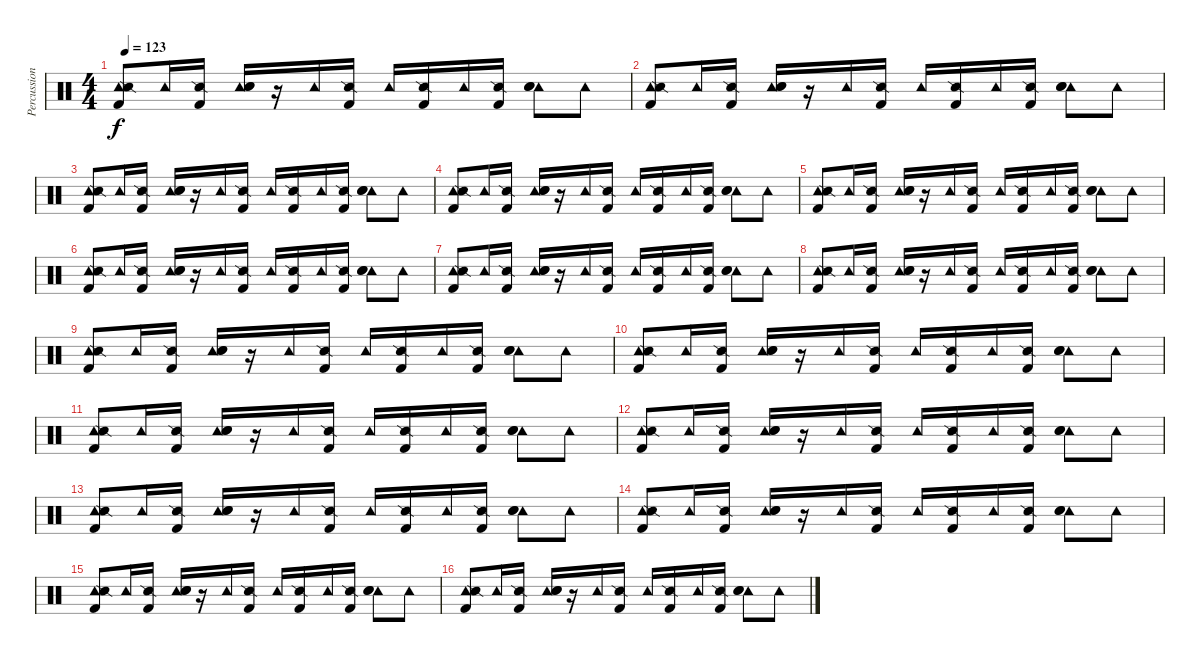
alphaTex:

\track ("Percussion" "Percussion") {instrument percussion}
\staff {score}
\articulation defaults
\ts (4 4)
\tempo 123
\clef neutral
\ks c
("Tambourine (hit)" "Snare (side stick) 2" "Kick (hit) 2").8{dy f} "Tambourine (hit)".16 ("Snare (side stick) 2" "Kick (hit) 2").16 ("Tambourine (hit)" "Electric Snare (hit)" "Snare (hit) 2").16 r.16 "Tambourine (hit)".16 ("Snare (side stick) 2" "Kick (hit) 2").16 "Tambourine (hit)".16 ("Snare (side stick) 2" "Kick (hit) 2").16 "Tambourine (hit)".16 ("Snare (side stick) 2" "Kick (hit) 2").16 ("Tambourine (hit)" "Electric Snare (hit)" "Snare (hit) 2").8 "Tambourine (hit)".8 |
("Tambourine (hit)" "Snare (side stick) 2" "Kick (hit) 2").8 "Tambourine (hit)".16 ("Snare (side stick) 2" "Kick (hit) 2").16 ("Tambourine (hit)" "Electric Snare (hit)" "Snare (hit) 2").16 r.16 "Tambourine (hit)".16 ("Snare (side stick) 2" "Kick (hit) 2").16 "Tambourine (hit)".16 ("Snare (side stick) 2" "Kick (hit) 2").16 "Tambourine (hit)".16 ("Snare (side stick) 2" "Kick (hit) 2").16 ("Tambourine (hit)" "Electric Snare (hit)" "Snare (hit) 2").8 "Tambourine (hit)".8 |
("Tambourine (hit)" "Snare (side stick) 2" "Kick (hit) 2").8 "Tambourine (hit)".16 ("Snare (side stick) 2" "Kick (hit) 2").16 ("Tambourine (hit)" "Electric Snare (hit)" "Snare (hit) 2").16 r.16 "Tambourine (hit)".16 ("Snare (side stick) 2" "Kick (hit) 2").16 "Tambourine (hit)".16 ("Snare (side stick) 2" "Kick (hit) 2").16 "Tambourine (hit)".16 ("Snare (side stick) 2" "Kick (hit) 2").16 ("Tambourine (hit)" "Electric Snare (hit)" "Snare (hit) 2").8 "Tambourine (hit)".8 |
("Tambourine (hit)" "Snare (side stick) 2" "Kick (hit) 2").8 "Tambourine (hit)".16 ("Snare (side stick) 2" "Kick (hit) 2").16 ("Tambourine (hit)" "Electric Snare (hit)" "Snare (hit) 2").16 r.16 "Tambourine (hit)".16 ("Snare (side stick) 2" "Kick (hit) 2").16 "Tambourine (hit)".16 ("Snare (side stick) 2" "Kick (hit) 2").16 "Tambourine (hit)".16 ("Snare (side stick) 2" "Kick (hit) 2").16 ("Tambourine (hit)" "Electric Snare (hit)" "Snare (hit) 2").8 "Tambourine (hit)".8 |
("Tambourine (hit)" "Snare (side stick) 2" "Kick (hit) 2").8 "Tambourine (hit)".16 ("Snare (side stick) 2" "Kick (hit) 2").16 ("Tambourine (hit)" "Electric Snare (hit)" "Snare (hit) 2").16 r.16 "Tambourine (hit)".16 ("Snare (side stick) 2" "Kick (hit) 2").16 "Tambourine (hit)".16 ("Snare (side stick) 2" "Kick (hit) 2").16 "Tambourine (hit)".16 ("Snare (side stick) 2" "Kick (hit) 2").16 ("Tambourine (hit)" "Electric Snare (hit)" "Snare (hit) 2").8 "Tambourine (hit)".8 |
("Tambourine (hit)" "Snare (side stick) 2" "Kick (hit) 2").8 "Tambourine (hit)".16 ("Snare (side stick) 2" "Kick (hit) 2").16 ("Tambourine (hit)" "Electric Snare (hit)" "Snare (hit) 2").16 r.16 "Tambourine (hit)".16 ("Snare (side stick) 2" "Kick (hit) 2").16 "Tambourine (hit)".16 ("Snare (side stick) 2" "Kick (hit) 2").16 "Tambourine (hit)".16 ("Snare (side stick) 2" "Kick (hit) 2").16 ("Tambourine (hit)" "Electric Snare (hit)" "Snare (hit) 2").8 "Tambourine (hit)".8 |
("Tambourine (hit)" "Snare (side stick) 2" "Kick (hit) 2").8 "Tambourine (hit)".16 ("Snare (side stick) 2" "Kick (hit) 2").16 ("Tambourine (hit)" "Electric Snare (hit)" "Snare (hit) 2").16 r.16 "Tambourine (hit)".16 ("Snare (side stick) 2" "Kick (hit) 2").16 "Tambourine (hit)".16 ("Snare (side stick) 2" "Kick (hit) 2").16 "Tambourine (hit)".16 ("Snare (side stick) 2" "Kick (hit) 2").16 ("Tambourine (hit)" "Electric Snare (hit)" "Snare (hit) 2").8 "Tambourine (hit)".8 |
("Tambourine (hit)" "Snare (side stick) 2" "Kick (hit) 2").8 "Tambourine (hit)".16 ("Snare (side stick) 2" "Kick (hit) 2").16 ("Tambourine (hit)" "Electric Snare (hit)" "Snare (hit) 2").16 r.16 "Tambourine (hit)".16 ("Snare (side stick) 2" "Kick (hit) 2").16 "Tambourine (hit)".16 ("Snare (side stick) 2" "Kick (hit) 2").16 "Tambourine (hit)".16 ("Snare (side stick) 2" "Kick (hit) 2").16 ("Tambourine (hit)" "Electric Snare (hit)" "Snare (hit) 2").8 "Tambourine (hit)".8 |
("Tambourine (hit)" "Snare (side stick) 2" "Kick (hit) 2").8 "Tambourine (hit)".16 ("Snare (side stick) 2" "Kick (hit) 2").16 ("Tambourine (hit)" "Electric Snare (hit)" "Snare (hit) 2").16 r.16 "Tambourine (hit)".16 ("Snare (side stick) 2" "Kick (hit) 2").16 "Tambourine (hit)".16 ("Snare (side stick) 2" "Kick (hit) 2").16 "Tambourine (hit)".16 ("Snare (side stick) 2" "Kick (hit) 2").16 ("Tambourine (hit)" "Electric Snare (hit)" "Snare (hit) 2").8 "Tambourine (hit)".8 |
("Tambourine (hit)" "Snare (side stick) 2" "Kick (hit) 2").8 "Tambourine (hit)".16 ("Snare (side stick) 2" "Kick (hit) 2").16 ("Tambourine (hit)" "Electric Snare (hit)" "Snare (hit) 2").16 r.16 "Tambourine (hit)".16 ("Snare (side stick) 2" "Kick (hit) 2").16 "Tambourine (hit)".16 ("Snare (side stick) 2" "Kick (hit) 2").16 "Tambourine (hit)".16 ("Snare (side stick) 2" "Kick (hit) 2").16 ("Tambourine (hit)" "Electric Snare (hit)" "Snare (hit) 2").8 "Tambourine (hit)".8 |
("Tambourine (hit)" "Snare (side stick) 2" "Kick (hit) 2").8 "Tambourine (hit)".16 ("Snare (side stick) 2" "Kick (hit) 2").16 ("Tambourine (hit)" "Electric Snare (hit)" "Snare (hit) 2").16 r.16 "Tambourine (hit)".16 ("Snare (side stick) 2" "Kick (hit) 2").16 "Tambourine (hit)".16 ("Snare (side stick) 2" "Kick (hit) 2").16 "Tambourine (hit)".16 ("Snare (side stick) 2" "Kick (hit) 2").16 ("Tambourine (hit)" "Electric Snare (hit)" "Snare (hit) 2").8 "Tambourine (hit)".8 |
("Tambourine (hit)" "Snare (side stick) 2" "Kick (hit) 2").8 "Tambourine (hit)".16 ("Snare (side stick) 2" "Kick (hit) 2").16 ("Tambourine (hit)" "Electric Snare (hit)" "Snare (hit) 2").16 r.16 "Tambourine (hit)".16 ("Snare (side stick) 2" "Kick (hit) 2").16 "Tambourine (hit)".16 ("Snare (side stick) 2" "Kick (hit) 2").16 "Tambourine (hit)".16 ("Snare (side stick) 2" "Kick (hit) 2").16 ("Tambourine (hit)" "Electric Snare (hit)" "Snare (hit) 2").8 "Tambourine (hit)".8 |
("Tambourine (hit)" "Snare (side stick) 2" "Kick (hit) 2").8 "Tambourine (hit)".16 ("Snare (side stick) 2" "Kick (hit) 2").16 ("Tambourine (hit)" "Electric Snare (hit)" "Snare (hit) 2").16 r.16 "Tambourine (hit)".16 ("Snare (side stick) 2" "Kick (hit) 2").16 "Tambourine (hit)".16 ("Snare (side stick) 2" "Kick (hit) 2").16 "Tambourine (hit)".16 ("Snare (side stick) 2" "Kick (hit) 2").16 ("Tambourine (hit)" "Electric Snare (hit)" "Snare (hit) 2").8 "Tambourine (hit)".8 |
("Tambourine (hit)" "Snare (side stick) 2" "Kick (hit) 2").8 "Tambourine (hit)".16 ("Snare (side stick) 2" "Kick (hit) 2").16 ("Tambourine (hit)" "Electric Snare (hit)" "Snare (hit) 2").16 r.16 "Tambourine (hit)".16 ("Snare (side stick) 2" "Kick (hit) 2").16 "Tambourine (hit)".16 ("Snare (side stick) 2" "Kick (hit) 2").16 "Tambourine (hit)".16 ("Snare (side stick) 2" "Kick (hit) 2").16 ("Tambourine (hit)" "Electric Snare (hit)" "Snare (hit) 2").8 "Tambourine (hit)".8 |
("Tambourine (hit)" "Snare (side stick) 2" "Kick (hit) 2").8 "Tambourine (hit)".16 ("Snare (side stick) 2" "Kick (hit) 2").16 ("Tambourine (hit)" "Electric Snare (hit)" "Snare (hit) 2").16 r.16 "Tambourine (hit)".16 ("Snare (side stick) 2" "Kick (hit) 2").16 "Tambourine (hit)".16 ("Snare (side stick) 2" "Kick (hit) 2").16 "Tambourine (hit)".16 ("Snare (side stick) 2" "Kick (hit) 2").16 ("Tambourine (hit)" "Electric Snare (hit)" "Snare (hit) 2").8 "Tambourine (hit)".8 |
("Tambourine (hit)" "Snare (side stick) 2" "Kick (hit) 2").8 "Tambourine (hit)".16 ("Snare (side stick) 2" "Kick (hit) 2").16 ("Tambourine (hit)" "Electric Snare (hit)" "Snare (hit) 2").16 r.16 "Tambourine (hit)".16 ("Snare (side stick) 2" "Kick (hit) 2").16 "Tambourine (hit)".16 ("Snare (side stick) 2" "Kick (hit) 2").16 "Tambourine (hit)".16 ("Snare (side stick) 2" "Kick (hit) 2").16 ("Tambourine (hit)" "Electric Snare (hit)" "Snare (hit) 2").8 "Tambourine (hit)".8
